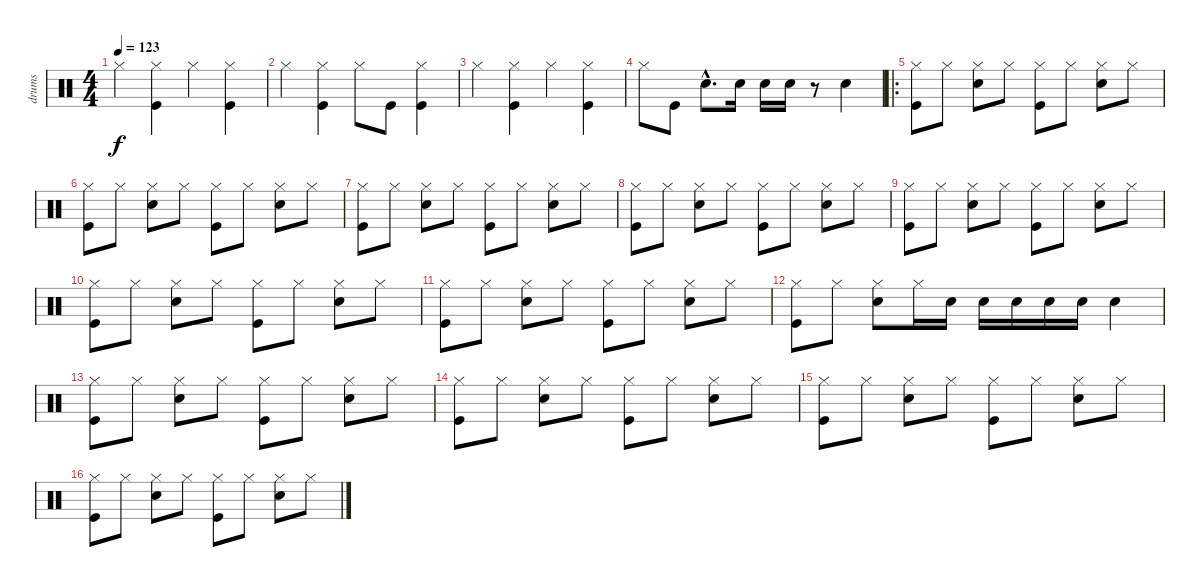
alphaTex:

\track ("drums" "drums") {instrument percussion}
\staff {score}
\articulation defaults
\ts (4 4)
\tempo 123
\clef neutral
\ks c "Hi-Hat (closed)".4{dy f}
("Hi-Hat (closed)" "Kick (hit)").4 "Hi-Hat (closed)".4 ("Hi-Hat (closed)" "Kick (hit)").4 |
"Hi-Hat (closed)".4 ("Hi-Hat (closed)" "Kick (hit)").4 "Hi-Hat (closed)".8 "Kick (hit)".8 ("Hi-Hat (closed)" "Kick (hit)").4 |
"Hi-Hat (closed)".4 ("Hi-Hat (closed)" "Kick (hit)").4 "Hi-Hat (closed)".4 ("Hi-Hat (closed)" "Kick (hit)").4 |
"Hi-Hat (closed)".8 "Kick (hit)".8 "Electric Snare (hit)"{hac}.8{d} "Electric Snare (hit)".16 "Electric Snare (hit)".16 "Electric Snare (hit)".16 r.8 "Electric Snare (hit)".4 |
\ro
("Hi-Hat (closed)" "Kick (hit)").8 "Hi-Hat (closed)".8 ("Hi-Hat (closed)" "Electric Snare (hit)").8 "Hi-Hat (closed)".8 ("Hi-Hat (closed)" "Kick (hit)").8 "Hi-Hat (closed)".8 ("Hi-Hat (closed)" "Electric Snare (hit)").8 "Hi-Hat (closed)".8 |
("Hi-Hat (closed)" "Kick (hit)").8 "Hi-Hat (closed)".8 ("Hi-Hat (closed)" "Electric Snare (hit)").8 "Hi-Hat (closed)".8 ("Hi-Hat (closed)" "Kick (hit)").8 "Hi-Hat (closed)".8 ("Hi-Hat (closed)" "Electric Snare (hit)").8 "Hi-Hat (closed)".8 |
("Hi-Hat (closed)" "Kick (hit)").8 "Hi-Hat (closed)".8 ("Hi-Hat (closed)" "Electric Snare (hit)").8 "Hi-Hat (closed)".8 ("Hi-Hat (closed)" "Kick (hit)").8 "Hi-Hat (closed)".8 ("Hi-Hat (closed)" "Electric Snare (hit)").8 "Hi-Hat (closed)".8 |
("Hi-Hat (closed)" "Kick (hit)").8 "Hi-Hat (closed)".8 ("Hi-Hat (closed)" "Electric Snare (hit)").8 "Hi-Hat (closed)".8 ("Hi-Hat (closed)" "Kick (hit)").8 "Hi-Hat (closed)".8 ("Hi-Hat (closed)" "Electric Snare (hit)").8 "Hi-Hat (closed)".8 |
("Hi-Hat (closed)" "Kick (hit)").8 "Hi-Hat (closed)".8 ("Hi-Hat (closed)" "Electric Snare (hit)").8 "Hi-Hat (closed)".8 ("Hi-Hat (closed)" "Kick (hit)").8 "Hi-Hat (closed)".8 ("Hi-Hat (closed)" "Electric Snare (hit)").8 "Hi-Hat (closed)".8 |
("Hi-Hat (closed)" "Kick (hit)").8 "Hi-Hat (closed)".8 ("Hi-Hat (closed)" "Electric Snare (hit)").8 "Hi-Hat (closed)".8 ("Hi-Hat (closed)" "Kick (hit)").8 "Hi-Hat (closed)".8 ("Hi-Hat (closed)" "Electric Snare (hit)").8 "Hi-Hat (closed)".8 |
("Hi-Hat (closed)" "Kick (hit)").8 "Hi-Hat (closed)".8 ("Hi-Hat (closed)" "Electric Snare (hit)").8 "Hi-Hat (closed)".8 ("Hi-Hat (closed)" "Kick (hit)").8 "Hi-Hat (closed)".8 ("Hi-Hat (closed)" "Electric Snare (hit)").8 "Hi-Hat (closed)".8 |
("Hi-Hat (closed)" "Kick (hit)").8 "Hi-Hat (closed)".8 ("Hi-Hat (closed)" "Electric Snare (hit)").8 "Hi-Hat (closed)".16 "Electric Snare (hit)".16 "Electric Snare (hit)".16 "Electric Snare (hit)".16 "Electric Snare (hit)".16 "Electric Snare (hit)".16 "Electric Snare (hit)".4 |
("Hi-Hat (closed)" "Kick (hit)").8 "Hi-Hat (closed)".8 ("Hi-Hat (closed)" "Electric Snare (hit)").8 "Hi-Hat (closed)".8 ("Hi-Hat (closed)" "Kick (hit)").8 "Hi-Hat (closed)".8 ("Hi-Hat (closed)" "Electric Snare (hit)").8 "Hi-Hat (closed)".8 |
("Hi-Hat (closed)" "Kick (hit)").8 "Hi-Hat (closed)".8 ("Hi-Hat (closed)" "Electric Snare (hit)").8 "Hi-Hat (closed)".8 ("Hi-Hat (closed)" "Kick (hit)").8 "Hi-Hat (closed)".8 ("Hi-Hat (closed)" "Electric Snare (hit)").8 "Hi-Hat (closed)".8 |
("Hi-Hat (closed)" "Kick (hit)").8 "Hi-Hat (closed)".8 ("Hi-Hat (closed)" "Electric Snare (hit)").8 "Hi-Hat (closed)".8 ("Hi-Hat (closed)" "Kick (hit)").8 "Hi-Hat (closed)".8 ("Hi-Hat (closed)" "Electric Snare (hit)").8 "Hi-Hat (closed)".8 |
("Hi-Hat (closed)" "Kick (hit)").8 "Hi-Hat (closed)".8 ("Hi-Hat (closed)" "Electric Snare (hit)").8 "Hi-Hat (closed)".8 ("Hi-Hat (closed)" "Kick (hit)").8 "Hi-Hat (closed)".8 ("Hi-Hat (closed)" "Electric Snare (hit)").8 "Hi-Hat (closed)".8
